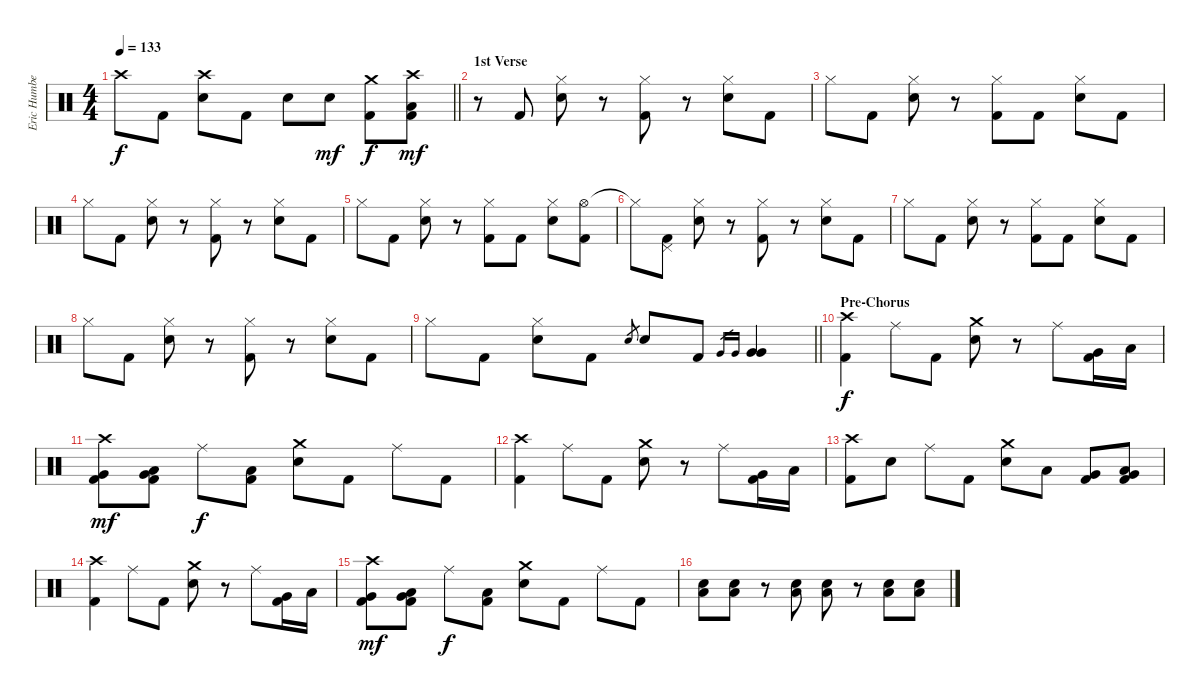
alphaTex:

\track ("Eric Humbert (Drums)" "Eric Humbe") {instrument percussion}
\staff {score}
\articulation defaults
\ts (4 4)
\tempo 133
\clef neutral
\barLineRight lightlight
\ks c "Crash high (hit)".8{dy f} "Kick (hit) 2".8
("Crash high (hit)" "Electric Snare (hit)").8 "Kick (hit) 2".8 "Electric Snare (hit)".8 "Electric Snare (hit)".8{dy mf} ("Crash medium (hit)" "Kick (hit) 2").8{dy f} ("Crash high (hit)" "Low Floor Tom (hit)" "Kick (hit) 2").8{dy mf} |
\section ("" "1st Verse")
r.8 "Kick (hit) 2".8 ("Hi-Hat (closed)" "Electric Snare (hit)").8 r.8 ("Hi-Hat (closed)" "Kick (hit) 2").8 r.8 ("Hi-Hat (closed)" "Electric Snare (hit)").8 "Kick (hit) 2".8 |
"Hi-Hat (closed)".8 "Kick (hit) 2".8 ("Hi-Hat (closed)" "Electric Snare (hit)").8 r.8 ("Hi-Hat (closed)" "Kick (hit) 2").8 "Kick (hit) 2".8 ("Hi-Hat (closed)" "Electric Snare (hit)").8 "Kick (hit) 2".8 |
"Hi-Hat (closed)".8 "Kick (hit) 2".8 ("Hi-Hat (closed)" "Electric Snare (hit)").8 r.8 ("Hi-Hat (closed)" "Kick (hit) 2").8 r.8 ("Hi-Hat (closed)" "Electric Snare (hit)").8 "Kick (hit) 2".8 |
"Hi-Hat (closed)".8 "Kick (hit) 2".8 ("Hi-Hat (closed)" "Electric Snare (hit)").8 r.8 ("Hi-Hat (closed)" "Kick (hit) 2").8 "Kick (hit) 2".8 ("Hi-Hat (closed)" "Electric Snare (hit)").8 ("Hi-Hat (open)" "Kick (hit) 2").8 |
"Hi-Hat (closed)"{t}.8 ("Pedal Hi-Hat (hit)" "Kick (hit) 2").8 ("Hi-Hat (closed)" "Electric Snare (hit)").8 r.8 ("Hi-Hat (closed)" "Kick (hit) 2").8 r.8 ("Hi-Hat (closed)" "Electric Snare (hit)").8 "Kick (hit) 2".8 |
"Hi-Hat (closed)".8 "Kick (hit) 2".8 ("Hi-Hat (closed)" "Electric Snare (hit)").8 r.8 ("Hi-Hat (closed)" "Kick (hit) 2").8 "Kick (hit) 2".8 ("Hi-Hat (closed)" "Electric Snare (hit)").8 "Kick (hit) 2".8 |
"Hi-Hat (closed)".8 "Kick (hit) 2".8 ("Hi-Hat (closed)" "Electric Snare (hit)").8 r.8 ("Hi-Hat (closed)" "Kick (hit) 2").8 r.8 ("Hi-Hat (closed)" "Electric Snare (hit)").8 "Kick (hit) 2".8 |
\barLineRight lightlight "Hi-Hat (closed)".8 "Kick (hit) 2".8
("Hi-Hat (closed)" "Electric Snare (hit)").8 "Kick (hit) 2".8 "Electric Snare (hit)".8{gr} "Electric Snare (hit)".8 "Kick (hit) 2".8 "Very Low Tom (hit)".16{gr} "Very Low Tom (hit)".16{gr} ("Very Low Tom (hit)" "Very Low Tom (hit)").4 |
\section ("" "Pre-Chorus")
("Crash high (hit)" "Kick (hit) 2").4{dy f} "Ride (middle)".8 "Kick (hit) 2".8 ("Crash medium (hit)" "Electric Snare (hit)").8 r.8 "Ride (middle)".8 ("Very Low Tom (hit)" "Kick (hit) 2").16 "Low Tom (hit)".16 |
("Crash high (hit)" "Very Low Tom (hit)" "Kick (hit) 2").8{dy mf} ("Very Low Tom (hit)" "Low Floor Tom (hit)" "Kick (hit) 2").8 "Ride (middle)".8{dy f} ("Low Floor Tom (hit)" "Kick (hit) 2").8 ("Crash medium (hit)" "Electric Snare (hit)").8 "Kick (hit) 2".8 "Ride (middle)".8 "Kick (hit) 2".8 |
("Crash high (hit)" "Kick (hit) 2").4 "Ride (middle)".8 "Kick (hit) 2".8 ("Crash medium (hit)" "Electric Snare (hit)").8 r.8 "Ride (middle)".8 ("Very Low Tom (hit)" "Kick (hit) 2").16 "Low Tom (hit)".16 |
("Crash high (hit)" "Kick (hit) 2").8 "Electric Snare (hit)".8 "Ride (middle)".8 "Kick (hit) 2".8 ("Crash medium (hit)" "Electric Snare (hit)").8 "Low Tom (hit)".8 ("Very Low Tom (hit)" "Kick (hit) 2").8 ("Very Low Tom (hit)" "Low Floor Tom (hit)" "Kick (hit) 2").8 |
("Crash high (hit)" "Kick (hit) 2").4 "Ride (middle)".8 "Kick (hit) 2".8 ("Crash medium (hit)" "Electric Snare (hit)").8 r.8 "Ride (middle)".8 ("Very Low Tom (hit)" "Kick (hit) 2").16 "Low Tom (hit)".16 |
("Crash high (hit)" "Very Low Tom (hit)" "Kick (hit) 2").8{dy mf} ("Very Low Tom (hit)" "Low Floor Tom (hit)" "Kick (hit) 2").8 "Ride (middle)".8{dy f} ("Low Floor Tom (hit)" "Kick (hit) 2").8 ("Crash medium (hit)" "Electric Snare (hit)").8 "Kick (hit) 2".8 "Ride (middle)".8 "Kick (hit) 2".8 |
("Low Floor Tom (hit)" "Electric Snare (hit)").8 ("Low Floor Tom (hit)" "Electric Snare (hit)").8 r.8 ("Low Floor Tom (hit)" "Electric Snare (hit)").8 ("Low Floor Tom (hit)" "Electric Snare (hit)").8 r.8 ("Low Floor Tom (hit)" "Electric Snare (hit)").8 ("Low Floor Tom (hit)" "Electric Snare (hit)").8
